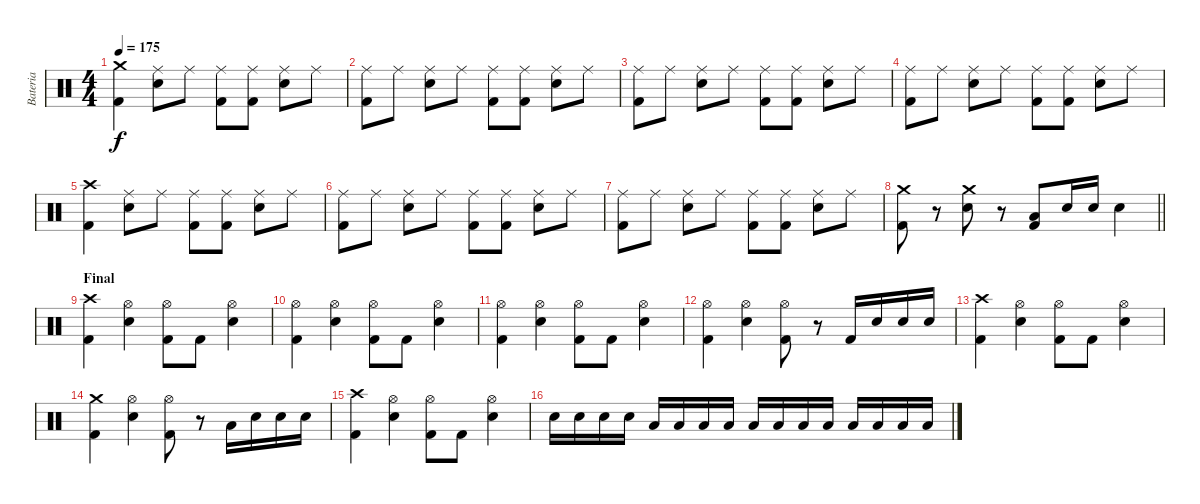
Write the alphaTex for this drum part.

\track ("Bateria" "Bateria") {instrument percussion}
\staff {score}
\articulation defaults
\ts (4 4)
\tempo 175
\clef neutral
\ks c
("Crash medium (hit)" "Kick (hit) 2").4{dy f} ("Ride (middle)" "Electric Snare (hit)").8 "Ride (middle)".8 ("Ride (middle)" "Kick (hit) 2").8 ("Ride (middle)" "Kick (hit) 2").8 ("Ride (middle)" "Electric Snare (hit)").8 "Ride (middle)".8 |
("Ride (middle)" "Kick (hit) 2").8 "Ride (middle)".8 ("Ride (middle)" "Electric Snare (hit)").8 "Ride (middle)".8 ("Ride (middle)" "Kick (hit) 2").8 ("Ride (middle)" "Kick (hit) 2").8 ("Ride (middle)" "Electric Snare (hit)").8 "Ride (middle)".8 |
("Ride (middle)" "Kick (hit) 2").8 "Ride (middle)".8 ("Ride (middle)" "Electric Snare (hit)").8 "Ride (middle)".8 ("Ride (middle)" "Kick (hit) 2").8 ("Ride (middle)" "Kick (hit) 2").8 ("Ride (middle)" "Electric Snare (hit)").8 "Ride (middle)".8 |
("Ride (middle)" "Kick (hit) 2").8 "Ride (middle)".8 ("Ride (middle)" "Electric Snare (hit)").8 "Ride (middle)".8 ("Ride (middle)" "Kick (hit) 2").8 ("Ride (middle)" "Kick (hit) 2").8 ("Ride (middle)" "Electric Snare (hit)").8 "Ride (middle)".8 |
("Crash high (hit)" "Kick (hit) 2").4 ("Ride (middle)" "Electric Snare (hit)").8 "Ride (middle)".8 ("Ride (middle)" "Kick (hit) 2").8 ("Ride (middle)" "Kick (hit) 2").8 ("Ride (middle)" "Electric Snare (hit)").8 "Ride (middle)".8 |
("Ride (middle)" "Kick (hit) 2").8 "Ride (middle)".8 ("Ride (middle)" "Electric Snare (hit)").8 "Ride (middle)".8 ("Ride (middle)" "Kick (hit) 2").8 ("Ride (middle)" "Kick (hit) 2").8 ("Ride (middle)" "Electric Snare (hit)").8 "Ride (middle)".8 |
("Ride (middle)" "Kick (hit) 2").8 "Ride (middle)".8 ("Ride (middle)" "Electric Snare (hit)").8 "Ride (middle)".8 ("Ride (middle)" "Kick (hit) 2").8 ("Ride (middle)" "Kick (hit) 2").8 ("Ride (middle)" "Electric Snare (hit)").8 "Ride (middle)".8 |
\barLineRight lightlight
("Crash medium (hit)" "Kick (hit) 2").8 r.8 ("Crash medium (hit)" "Electric Snare (hit)").8 r.8 ("Low Tom (hit)" "Kick (hit) 2").8 "Electric Snare (hit)".16 "Electric Snare (hit)".16 "Electric Snare (hit)".4 |
\section ("" "Final")
("Crash high (hit)" "Kick (hit) 2").4 ("Hi-Hat (open)" "Electric Snare (hit)").4 ("Hi-Hat (open)" "Kick (hit) 2").8 "Kick (hit) 2".8 ("Hi-Hat (open)" "Electric Snare (hit)").4 |
("Hi-Hat (open)" "Kick (hit) 2").4 ("Hi-Hat (open)" "Electric Snare (hit)").4 ("Hi-Hat (open)" "Kick (hit) 2").8 "Kick (hit) 2".8 ("Hi-Hat (open)" "Electric Snare (hit)").4 |
("Hi-Hat (open)" "Kick (hit) 2").4 ("Hi-Hat (open)" "Electric Snare (hit)").4 ("Hi-Hat (open)" "Kick (hit) 2").8 "Kick (hit) 2".8 ("Hi-Hat (open)" "Electric Snare (hit)").4 |
("Hi-Hat (open)" "Kick (hit) 2").4 ("Hi-Hat (open)" "Electric Snare (hit)").4 ("Hi-Hat (open)" "Kick (hit) 2").8 r.8 "Kick (hit) 2".16 "Electric Snare (hit)".16 "Electric Snare (hit)".16 "Electric Snare (hit)".16 |
("Crash high (hit)" "Kick (hit) 2").4 ("Hi-Hat (open)" "Electric Snare (hit)").4 ("Hi-Hat (open)" "Kick (hit) 2").8 "Kick (hit) 2".8 ("Hi-Hat (open)" "Electric Snare (hit)").4 |
("Crash medium (hit)" "Kick (hit) 2").4 ("Hi-Hat (open)" "Electric Snare (hit)").4 ("Hi-Hat (open)" "Kick (hit) 2").8 r.8 "Low Tom (hit)".16 "Electric Snare (hit)".16 "Electric Snare (hit)".16 "Electric Snare (hit)".16 |
("Crash high (hit)" "Kick (hit) 2").4 ("Hi-Hat (open)" "Electric Snare (hit)").4 ("Hi-Hat (open)" "Kick (hit) 2").8 "Kick (hit) 2".8 ("Hi-Hat (open)" "Electric Snare (hit)").4 |
"Electric Snare (hit)".16 "Electric Snare (hit)".16 "Electric Snare (hit)".16 "Electric Snare (hit)".16 "Low Tom (hit)".16 "Low Tom (hit)".16 "Low Tom (hit)".16 "Low Tom (hit)".16 "Low Floor Tom (hit)".16 "Low Floor Tom (hit)".16 "Low Floor Tom (hit)".16 "Low Floor Tom (hit)".16 "Low Floor Tom (hit)".16 "Low Floor Tom (hit)".16 "Low Floor Tom (hit)".16 "Low Floor Tom (hit)".16
